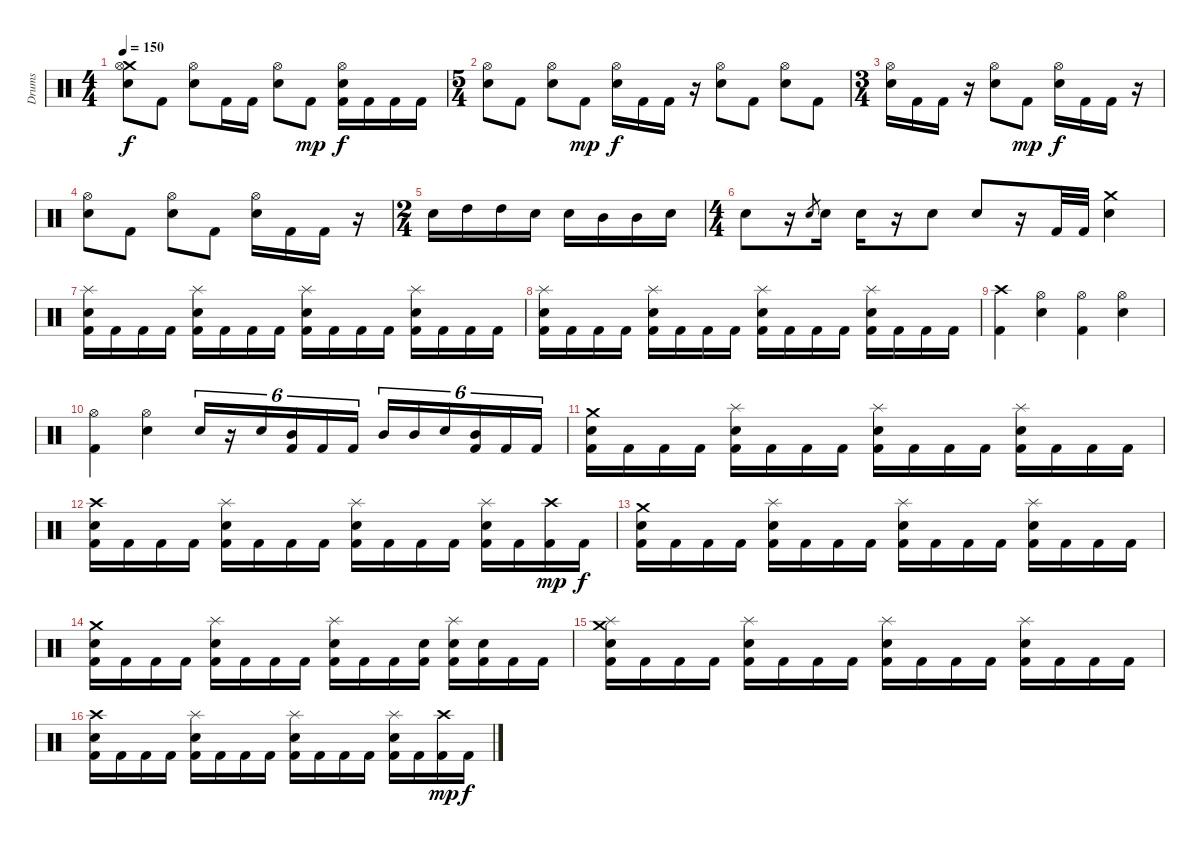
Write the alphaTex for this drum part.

\track ("Drums" "Drums") {instrument percussion}
\staff {score}
\articulation defaults
\ts (4 4)
\tempo 150
\clef neutral
\ks c
("Crash medium (hit)" "Hi-Hat (open)" "Electric Snare (hit)").8{dy f} "Kick (hit) 2".8 ("Hi-Hat (open)" "Electric Snare (hit)").8 "Kick (hit) 2".16 "Kick (hit) 2".16 ("Hi-Hat (open)" "Electric Snare (hit)").8 "Kick (hit) 2".8{dy mp} ("Hi-Hat (open)" "Electric Snare (hit)" "Kick (hit) 2").16{dy f} "Kick (hit) 2".16 "Kick (hit) 2".16 "Kick (hit) 2".16 |
\ts (5 4)
("Hi-Hat (open)" "Electric Snare (hit)").8 "Kick (hit) 2".8 ("Hi-Hat (open)" "Electric Snare (hit)").8 "Kick (hit) 2".8{dy mp} ("Hi-Hat (open)" "Electric Snare (hit)").16{dy f} "Kick (hit) 2".16 "Kick (hit) 2".16 r.16 ("Hi-Hat (open)" "Electric Snare (hit)").8 "Kick (hit) 2".8 ("Hi-Hat (open)" "Electric Snare (hit)").8 "Kick (hit) 2".8 |
\ts (3 4)
("Hi-Hat (open)" "Electric Snare (hit)").16 "Kick (hit) 2".16 "Kick (hit) 2".16 r.16 ("Hi-Hat (open)" "Electric Snare (hit)").8 "Kick (hit) 2".8{dy mp} ("Hi-Hat (open)" "Electric Snare (hit)").16{dy f} "Kick (hit) 2".16 "Kick (hit) 2".16 r.16 |
("Hi-Hat (open)" "Electric Snare (hit)").8 "Kick (hit) 2".8 ("Hi-Hat (open)" "Electric Snare (hit)").8 "Kick (hit) 2".8 ("Hi-Hat (open)" "Electric Snare (hit)").16 "Kick (hit) 2".16 "Kick (hit) 2".16 r.16 |
\ts (2 4)
"Electric Snare (hit)".16 "High Tom (hit)".16 "High Tom (hit)".16 "Electric Snare (hit)".16 "Electric Snare (hit)".16 "Mid Tom (hit)".16 "Mid Tom (hit)".16 "Electric Snare (hit)".16 |
\ts (4 4)
"Electric Snare (hit)".8 r.16 "Electric Snare (hit)".8{gr} "Electric Snare (hit)".16 "Electric Snare (hit)".16 r.16 "Electric Snare (hit)".8 "Electric Snare (hit)".8 r.16 "Kick (hit) 2".32 "Kick (hit) 2".32 ("Crash medium (hit)" "Electric Snare (hit)").4 |
("Splash (hit)" "Electric Snare (hit)" "Kick (hit) 2").16 "Kick (hit) 2".16 "Kick (hit) 2".16 "Kick (hit) 2".16 ("Splash (hit)" "Electric Snare (hit)" "Kick (hit) 2").16 "Kick (hit) 2".16 "Kick (hit) 2".16 "Kick (hit) 2".16 ("Splash (hit)" "Electric Snare (hit)" "Kick (hit) 2").16 "Kick (hit) 2".16 "Kick (hit) 2".16 "Kick (hit) 2".16 ("Splash (hit)" "Electric Snare (hit)" "Kick (hit) 2").16 "Kick (hit) 2".16 "Kick (hit) 2".16 "Kick (hit) 2".16 |
("Splash (hit)" "Electric Snare (hit)" "Kick (hit) 2").16 "Kick (hit) 2".16 "Kick (hit) 2".16 "Kick (hit) 2".16 ("Splash (hit)" "Electric Snare (hit)" "Kick (hit) 2").16 "Kick (hit) 2".16 "Kick (hit) 2".16 "Kick (hit) 2".16 ("Splash (hit)" "Electric Snare (hit)" "Kick (hit) 2").16 "Kick (hit) 2".16 "Kick (hit) 2".16 "Kick (hit) 2".16 ("Splash (hit)" "Electric Snare (hit)" "Kick (hit) 2").16 "Kick (hit) 2".16 "Kick (hit) 2".16 "Kick (hit) 2".16 |
("Crash high (hit)" "Kick (hit) 2").4 ("Hi-Hat (open)" "Electric Snare (hit)").4 ("Hi-Hat (open)" "Kick (hit) 2").4 ("Hi-Hat (open)" "Electric Snare (hit)").4 |
("Hi-Hat (open)" "Kick (hit) 2").4 ("Hi-Hat (open)" "Electric Snare (hit)").4 "Electric Snare (hit)".16{tu (6 4)} r.16{tu (6 4)} "Electric Snare (hit)".16{tu (6 4)} ("Mid Tom (hit)" "Kick (hit) 2").16{tu (6 4)} "Kick (hit) 2".16{tu (6 4)} "Kick (hit) 2".16{tu (6 4)} "Mid Tom (hit)".16{tu (6 4)} "Mid Tom (hit)".16{tu (6 4)} "Electric Snare (hit)".16{tu (6 4)} ("Mid Tom (hit)" "Kick (hit) 2").16{tu (6 4)} "Kick (hit) 2".16{tu (6 4)} "Kick (hit) 2".16{tu (6 4)} |
("Crash medium (hit)" "Electric Snare (hit)" "Kick (hit) 2").16 "Kick (hit) 2".16 "Kick (hit) 2".16 "Kick (hit) 2".16 ("Splash (hit)" "Electric Snare (hit)" "Kick (hit) 2").16 "Kick (hit) 2".16 "Kick (hit) 2".16 "Kick (hit) 2".16 ("Splash (hit)" "Electric Snare (hit)" "Kick (hit) 2").16 "Kick (hit) 2".16 "Kick (hit) 2".16 "Kick (hit) 2".16 ("Splash (hit)" "Electric Snare (hit)" "Kick (hit) 2").16 "Kick (hit) 2".16 "Kick (hit) 2".16 "Kick (hit) 2".16 |
("Crash high (hit)" "Electric Snare (hit)" "Kick (hit) 2").16 "Kick (hit) 2".16 "Kick (hit) 2".16 "Kick (hit) 2".16 ("Splash (hit)" "Electric Snare (hit)" "Kick (hit) 2").16 "Kick (hit) 2".16 "Kick (hit) 2".16 "Kick (hit) 2".16 ("Splash (hit)" "Electric Snare (hit)" "Kick (hit) 2").16 "Kick (hit) 2".16 "Kick (hit) 2".16 "Kick (hit) 2".16 ("Splash (hit)" "Electric Snare (hit)" "Kick (hit) 2").16 "Kick (hit) 2".16 ("Crash high (hit)" "Kick (hit) 2").16{dy mp} "Kick (hit) 2".16{dy f} |
("Crash medium (hit)" "Electric Snare (hit)" "Kick (hit) 2").16 "Kick (hit) 2".16 "Kick (hit) 2".16 "Kick (hit) 2".16 ("Splash (hit)" "Electric Snare (hit)" "Kick (hit) 2").16 "Kick (hit) 2".16 "Kick (hit) 2".16 "Kick (hit) 2".16 ("Splash (hit)" "Electric Snare (hit)" "Kick (hit) 2").16 "Kick (hit) 2".16 "Kick (hit) 2".16 "Kick (hit) 2".16 ("Splash (hit)" "Electric Snare (hit)" "Kick (hit) 2").16 "Kick (hit) 2".16 "Kick (hit) 2".16 "Kick (hit) 2".16 |
("Crash medium (hit)" "Electric Snare (hit)" "Kick (hit) 2").16 "Kick (hit) 2".16 "Kick (hit) 2".16 "Kick (hit) 2".16 ("Splash (hit)" "Electric Snare (hit)" "Kick (hit) 2").16 "Kick (hit) 2".16 "Kick (hit) 2".16 "Kick (hit) 2".16 ("Splash (hit)" "Electric Snare (hit)" "Kick (hit) 2").16 "Kick (hit) 2".16 "Kick (hit) 2".16 ("Electric Snare (hit)" "Kick (hit) 2").16 ("Splash (hit)" "Electric Snare (hit)" "Kick (hit) 2").16 ("Electric Snare (hit)" "Kick (hit) 2").16 "Kick (hit) 2".16 "Kick (hit) 2".16 |
("Crash medium (hit)" "Splash (hit)" "Electric Snare (hit)" "Kick (hit) 2").16 "Kick (hit) 2".16 "Kick (hit) 2".16 "Kick (hit) 2".16 ("Splash (hit)" "Electric Snare (hit)" "Kick (hit) 2").16 "Kick (hit) 2".16 "Kick (hit) 2".16 "Kick (hit) 2".16 ("Splash (hit)" "Electric Snare (hit)" "Kick (hit) 2").16 "Kick (hit) 2".16 "Kick (hit) 2".16 "Kick (hit) 2".16 ("Splash (hit)" "Electric Snare (hit)" "Kick (hit) 2").16 "Kick (hit) 2".16 "Kick (hit) 2".16 "Kick (hit) 2".16 |
("Crash high (hit)" "Electric Snare (hit)" "Kick (hit) 2").16 "Kick (hit) 2".16 "Kick (hit) 2".16 "Kick (hit) 2".16 ("Splash (hit)" "Electric Snare (hit)" "Kick (hit) 2").16 "Kick (hit) 2".16 "Kick (hit) 2".16 "Kick (hit) 2".16 ("Splash (hit)" "Electric Snare (hit)" "Kick (hit) 2").16 "Kick (hit) 2".16 "Kick (hit) 2".16 "Kick (hit) 2".16 ("Splash (hit)" "Electric Snare (hit)" "Kick (hit) 2").16 "Kick (hit) 2".16 ("Crash high (hit)" "Kick (hit) 2").16{dy mp} "Kick (hit) 2".16{dy f}
